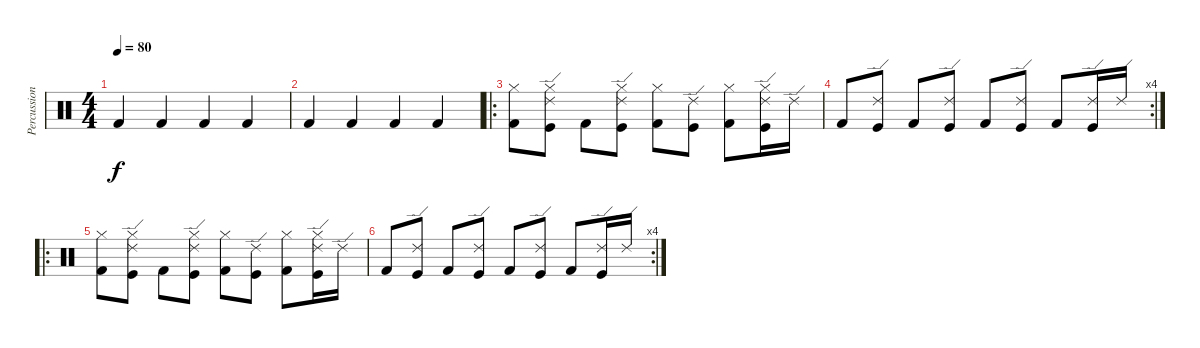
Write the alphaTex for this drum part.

\track ("Percussions" "Percussion") {instrument percussion}
\staff {score}
\articulation defaults
\ts (4 4)
\tempo 80
\clef neutral
\ks c "Kick (hit) 2".4{dy f} "Kick (hit) 2".4 "Kick (hit) 2".4 "Kick (hit) 2".4
|
"Kick (hit) 2".4 "Kick (hit) 2".4 "Kick (hit) 2".4 "Kick (hit) 2".4 |
\ro
("Kick (hit) 2" "Hi-Hat (closed)").8 ("Ride (edge) 2" "Kick (hit)" "Hi-Hat (closed)").8 "Kick (hit) 2".8 ("Ride (edge) 2" "Kick (hit)" "Hi-Hat (closed)").8 ("Kick (hit) 2" "Hi-Hat (closed)").8 ("Ride (edge) 2" "Kick (hit)").8 ("Kick (hit) 2" "Hi-Hat (closed)").8 ("Ride (edge) 2" "Kick (hit)" "Hi-Hat (closed)").16 "Ride (edge) 2".16 |
\rc 4 "Kick (hit) 2".8
("Ride (edge) 2" "Kick (hit)").8 "Kick (hit) 2".8 ("Ride (edge) 2" "Kick (hit)").8 "Kick (hit) 2".8 ("Ride (edge) 2" "Kick (hit)").8 "Kick (hit) 2".8 ("Ride (edge) 2" "Kick (hit)").16 "Ride (edge) 2".16 |
\ro
("Kick (hit) 2" "Hi-Hat (closed)").8 ("Ride (edge) 2" "Kick (hit)" "Hi-Hat (closed)").8 "Kick (hit) 2".8 ("Ride (edge) 2" "Kick (hit)" "Hi-Hat (closed)").8 ("Kick (hit) 2" "Hi-Hat (closed)").8 ("Ride (edge) 2" "Kick (hit)").8 ("Kick (hit) 2" "Hi-Hat (closed)").8 ("Ride (edge) 2" "Kick (hit)" "Hi-Hat (closed)").16 "Ride (edge) 2".16 |
\rc 4 "Kick (hit) 2".8
("Ride (edge) 2" "Kick (hit)").8 "Kick (hit) 2".8 ("Ride (edge) 2" "Kick (hit)").8 "Kick (hit) 2".8 ("Ride (edge) 2" "Kick (hit)").8 "Kick (hit) 2".8 ("Ride (edge) 2" "Kick (hit)").16 "Ride (edge) 2".16
